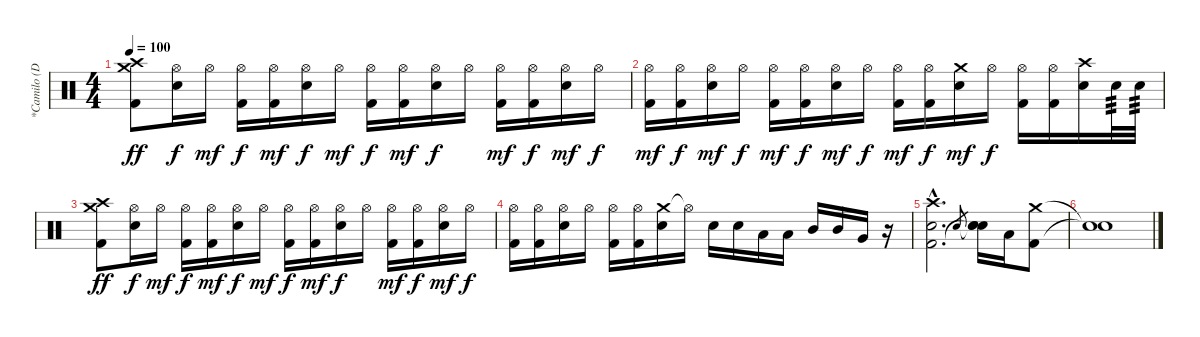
\track ("*Camilo (Drums)" "*Camilo (D") {instrument percussion}
\staff {score}
\articulation defaults
\ts (4 4)
\tempo 100
\clef neutral
\ks c
("Crash high (hit)" "Crash medium (hit)" "Kick (hit) 2").8{dy ff} ("Hi-Hat (open)" "Electric Snare (hit)").16{dy f} "Hi-Hat (open)".16{dy mf} ("Hi-Hat (open)" "Kick (hit) 2").16{dy f} ("Hi-Hat (open)" "Kick (hit) 2").16{dy mf} ("Hi-Hat (open)" "Electric Snare (hit)").16{dy f} "Hi-Hat (open)".16{dy mf} ("Hi-Hat (open)" "Kick (hit) 2").16{dy f} ("Hi-Hat (open)" "Kick (hit) 2").16{dy mf} ("Hi-Hat (open)" "Electric Snare (hit)").16{dy f} "Hi-Hat (open)".16 ("Hi-Hat (open)" "Kick (hit) 2").16{dy mf} ("Hi-Hat (open)" "Kick (hit) 2").16{dy f} ("Hi-Hat (open)" "Electric Snare (hit)").16{dy mf} "Hi-Hat (open)".16{dy f} |
("Hi-Hat (open)" "Kick (hit) 2").16{dy mf} ("Hi-Hat (open)" "Kick (hit) 2").16{dy f} ("Hi-Hat (open)" "Electric Snare (hit)").16{dy mf} "Hi-Hat (open)".16{dy f} ("Hi-Hat (open)" "Kick (hit) 2").16{dy mf} ("Hi-Hat (open)" "Kick (hit) 2").16{dy f} ("Hi-Hat (open)" "Electric Snare (hit)").16{dy mf} "Hi-Hat (open)".16{dy f} ("Hi-Hat (open)" "Kick (hit) 2").16{dy mf} ("Hi-Hat (open)" "Kick (hit) 2").16{dy f} ("Crash medium (hit)" "Electric Snare (hit)").16{dy mf} "Hi-Hat (open)".16{dy f} ("Hi-Hat (open)" "Kick (hit) 2").16 ("Hi-Hat (open)" "Kick (hit) 2").16 ("Crash high (hit)" "Electric Snare (hit)").16 "Electric Snare (hit)".32{tp 3} "Electric Snare (hit)".32{tp 3} |
("Crash high (hit)" "Crash medium (hit)" "Kick (hit) 2").8{dy ff} ("Hi-Hat (open)" "Electric Snare (hit)").16{dy f} "Hi-Hat (open)".16{dy mf} ("Hi-Hat (open)" "Kick (hit) 2").16{dy f} ("Hi-Hat (open)" "Kick (hit) 2").16{dy mf} ("Hi-Hat (open)" "Electric Snare (hit)").16{dy f} "Hi-Hat (open)".16{dy mf} ("Hi-Hat (open)" "Kick (hit) 2").16{dy f} ("Hi-Hat (open)" "Kick (hit) 2").16{dy mf} ("Hi-Hat (open)" "Electric Snare (hit)").16{dy f} "Hi-Hat (open)".16 ("Hi-Hat (open)" "Kick (hit) 2").16{dy mf} ("Hi-Hat (open)" "Kick (hit) 2").16{dy f} ("Hi-Hat (open)" "Electric Snare (hit)").16{dy mf} "Hi-Hat (open)".16{dy f} |
("Hi-Hat (open)" "Kick (hit) 2").16 ("Hi-Hat (open)" "Kick (hit) 2").16 ("Hi-Hat (open)" "Electric Snare (hit)").16 "Hi-Hat (open)".16 ("Hi-Hat (open)" "Kick (hit) 2").16 ("Hi-Hat (open)" "Kick (hit) 2").16 ("Crash medium (hit)" "Electric Snare (hit)").16 "Hi-Hat (open)"{t}.16 "Electric Snare (hit)".16 "Electric Snare (hit)".16 "Low Tom (hit)".16 "Low Tom (hit)".16 "Mid Tom (hit)".16 "Mid Tom (hit)".16 "Very Low Tom (hit)".16 r.16 |
("Crash high (hit)"{hac} "Electric Snare (hit)"{hac} "Kick (hit) 2"{hac}).2{d} "Electric Snare (hit)".8{gr} ("Snare (hit)"{t} "Electric Snare (hit)" "Snare (hit)"{t}).16 "Low Tom (hit)".16 ("Crash medium (hit)" "Kick (hit) 2").8 |
("Snare (hit)"{t} "Snare (hit)"{t}).1
